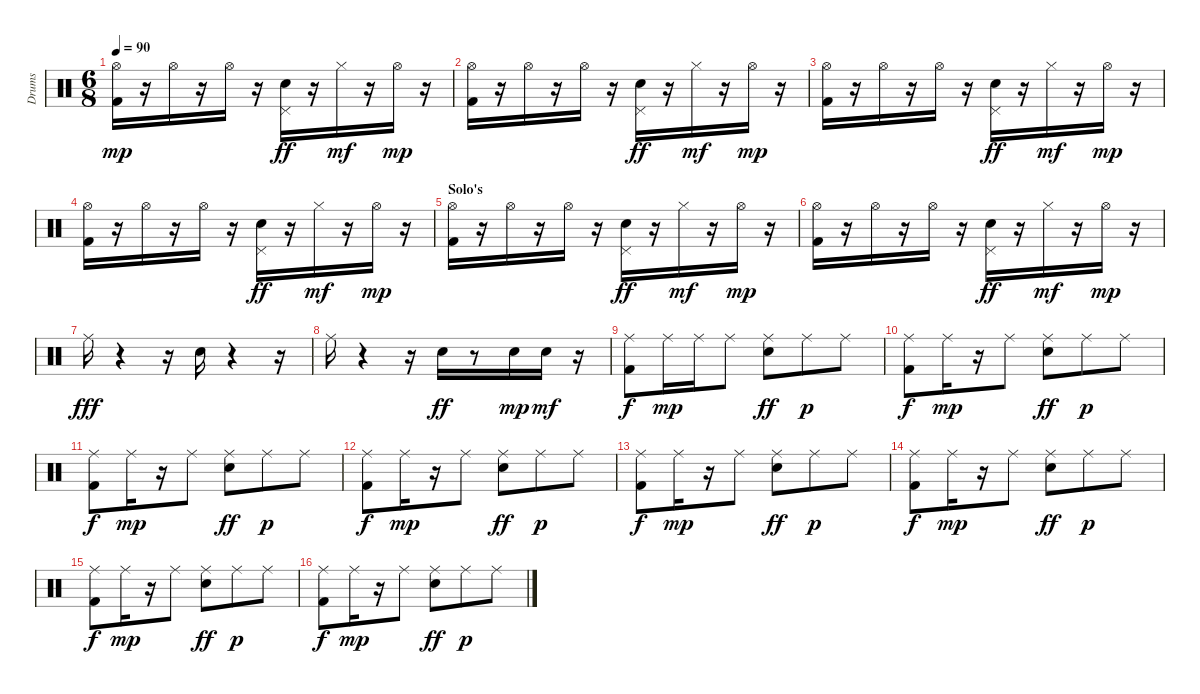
\track ("Drums" "Drums") {instrument percussion}
\staff {score}
\articulation defaults
\ts (6 8)
\tempo 90
\clef neutral
\ks c
("Hi-Hat (open)" "Kick (hit) 2").16{dy mp} r.16 "Hi-Hat (open)".16 r.16 "Hi-Hat (open)".16 r.16 ("Pedal Hi-Hat (hit)" "Snare (hit) 2").16{dy ff} r.16 "Hi-Hat (closed)".16{dy mf} r.16 "Hi-Hat (open)".16{dy mp} r.16 |
("Hi-Hat (open)" "Kick (hit) 2").16 r.16 "Hi-Hat (open)".16 r.16 "Hi-Hat (open)".16 r.16 ("Pedal Hi-Hat (hit)" "Snare (hit) 2").16{dy ff} r.16 "Hi-Hat (closed)".16{dy mf} r.16 "Hi-Hat (open)".16{dy mp} r.16 |
("Hi-Hat (open)" "Kick (hit) 2").16 r.16 "Hi-Hat (open)".16 r.16 "Hi-Hat (open)".16 r.16 ("Pedal Hi-Hat (hit)" "Snare (hit) 2").16{dy ff} r.16 "Hi-Hat (closed)".16{dy mf} r.16 "Hi-Hat (open)".16{dy mp} r.16 |
("Hi-Hat (open)" "Kick (hit) 2").16 r.16 "Hi-Hat (open)".16 r.16 "Hi-Hat (open)".16 r.16 ("Pedal Hi-Hat (hit)" "Snare (hit) 2").16{dy ff} r.16 "Hi-Hat (closed)".16{dy mf} r.16 "Hi-Hat (open)".16{dy mp} r.16 |
\section ("" "Solo's")
("Hi-Hat (open)" "Kick (hit) 2").16 r.16 "Hi-Hat (open)".16 r.16 "Hi-Hat (open)".16 r.16 ("Pedal Hi-Hat (hit)" "Snare (hit) 2").16{dy ff} r.16 "Hi-Hat (closed)".16{dy mf} r.16 "Hi-Hat (open)".16{dy mp} r.16 |
("Hi-Hat (open)" "Kick (hit) 2").16 r.16 "Hi-Hat (open)".16 r.16 "Hi-Hat (open)".16 r.16 ("Pedal Hi-Hat (hit)" "Snare (hit) 2").16{dy ff} r.16 "Hi-Hat (closed)".16{dy mf} r.16 "Hi-Hat (open)".16{dy mp} r.16 |
"Ride (middle)".16{dy fff} r.4 r.16 "Snare (hit) 2".16 r.4 r.16 |
"Ride (middle)".16 r.4 r.16 "Snare (hit) 2".16{dy ff} r.8 "Snare (hit) 2".16{dy mp} "Snare (hit) 2".16{dy mf} r.16 |
("Kick (hit) 2" "Ride (middle)").8{dy f} "Ride (middle)".16{dy mp} "Ride (middle)".16 "Ride (middle)".8 ("Snare (hit) 2" "Ride (middle)").8{dy ff} "Ride (middle)".8{dy p} "Ride (middle)".8 |
("Kick (hit) 2" "Ride (middle)").8{dy f} "Ride (middle)".16{dy mp} r.16 "Ride (middle)".8 ("Snare (hit) 2" "Ride (middle)").8{dy ff} "Ride (middle)".8{dy p} "Ride (middle)".8 |
("Kick (hit) 2" "Ride (middle)").8{dy f} "Ride (middle)".16{dy mp} r.16 "Ride (middle)".8 ("Snare (hit) 2" "Ride (middle)").8{dy ff} "Ride (middle)".8{dy p} "Ride (middle)".8 |
("Kick (hit) 2" "Ride (middle)").8{dy f} "Ride (middle)".16{dy mp} r.16 "Ride (middle)".8 ("Snare (hit) 2" "Ride (middle)").8{dy ff} "Ride (middle)".8{dy p} "Ride (middle)".8 |
("Kick (hit) 2" "Ride (middle)").8{dy f} "Ride (middle)".16{dy mp} r.16 "Ride (middle)".8 ("Snare (hit) 2" "Ride (middle)").8{dy ff} "Ride (middle)".8{dy p} "Ride (middle)".8 |
("Kick (hit) 2" "Ride (middle)").8{dy f} "Ride (middle)".16{dy mp} r.16 "Ride (middle)".8 ("Snare (hit) 2" "Ride (middle)").8{dy ff} "Ride (middle)".8{dy p} "Ride (middle)".8 |
("Kick (hit) 2" "Ride (middle)").8{dy f} "Ride (middle)".16{dy mp} r.16 "Ride (middle)".8 ("Snare (hit) 2" "Ride (middle)").8{dy ff} "Ride (middle)".8{dy p} "Ride (middle)".8 |
("Kick (hit) 2" "Ride (middle)").8{dy f} "Ride (middle)".16{dy mp} r.16 "Ride (middle)".8 ("Snare (hit) 2" "Ride (middle)").8{dy ff} "Ride (middle)".8{dy p} "Ride (middle)".8
